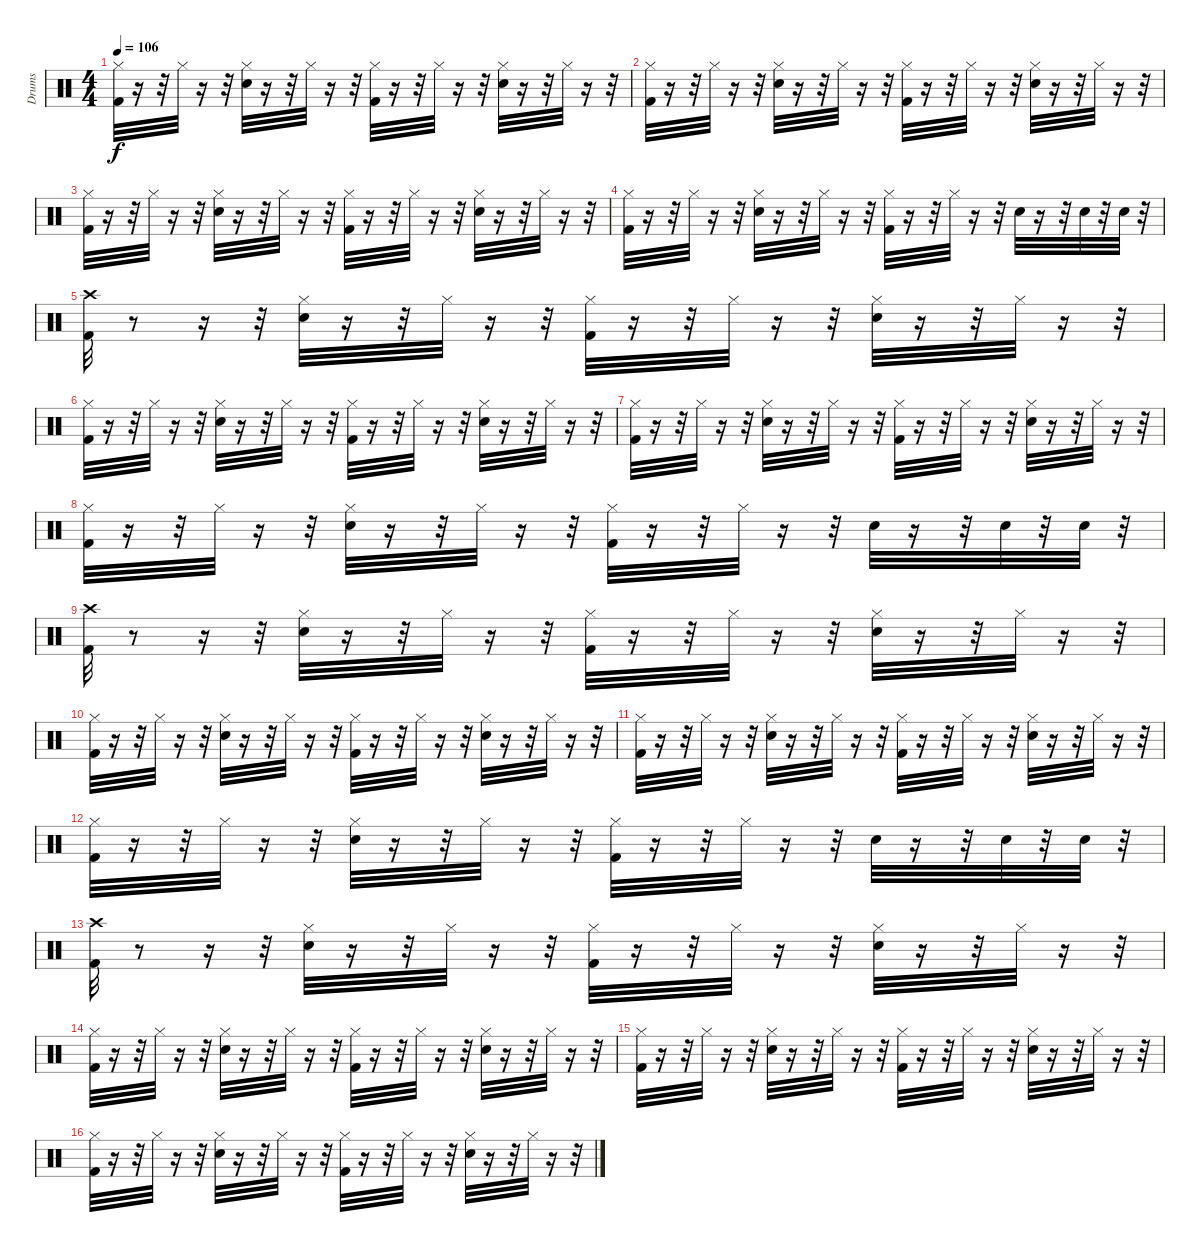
\track ("Drums" "Drums") {instrument percussion}
\staff {score}
\articulation defaults
\ts (4 4)
\tempo 106
\clef neutral
\ks c
("Hi-Hat (closed)" "Kick (hit) 2").32{dy f} r.16 r.32 "Hi-Hat (closed)".32 r.16 r.32 ("Hi-Hat (closed)" "Snare (hit) 2").32 r.16 r.32 "Hi-Hat (closed)".32 r.16 r.32 ("Hi-Hat (closed)" "Kick (hit) 2").32 r.16 r.32 "Hi-Hat (closed)".32 r.16 r.32 ("Hi-Hat (closed)" "Snare (hit) 2").32 r.16 r.32 "Hi-Hat (closed)".32 r.16 r.32 |
("Hi-Hat (closed)" "Kick (hit) 2").32 r.16 r.32 "Hi-Hat (closed)".32 r.16 r.32 ("Hi-Hat (closed)" "Snare (hit) 2").32 r.16 r.32 "Hi-Hat (closed)".32 r.16 r.32 ("Hi-Hat (closed)" "Kick (hit) 2").32 r.16 r.32 "Hi-Hat (closed)".32 r.16 r.32 ("Hi-Hat (closed)" "Snare (hit) 2").32 r.16 r.32 "Hi-Hat (closed)".32 r.16 r.32 |
("Hi-Hat (closed)" "Kick (hit) 2").32 r.16 r.32 "Hi-Hat (closed)".32 r.16 r.32 ("Hi-Hat (closed)" "Snare (hit) 2").32 r.16 r.32 "Hi-Hat (closed)".32 r.16 r.32 ("Hi-Hat (closed)" "Kick (hit) 2").32 r.16 r.32 "Hi-Hat (closed)".32 r.16 r.32 ("Hi-Hat (closed)" "Snare (hit) 2").32 r.16 r.32 "Hi-Hat (closed)".32 r.16 r.32 |
("Hi-Hat (closed)" "Kick (hit) 2").32 r.16 r.32 "Hi-Hat (closed)".32 r.16 r.32 ("Hi-Hat (closed)" "Snare (hit) 2").32 r.16 r.32 "Hi-Hat (closed)".32 r.16 r.32 ("Hi-Hat (closed)" "Kick (hit) 2").32 r.16 r.32 "Hi-Hat (closed)".32 r.16 r.32 "Snare (hit) 2".32 r.16 r.32 "Snare (hit) 2".32 r.32 "Snare (hit) 2".32 r.32 |
("Crash high (hit)" "Kick (hit) 2").32 r.8 r.16 r.32 ("Hi-Hat (closed)" "Snare (hit) 2").32 r.16 r.32 "Hi-Hat (closed)".32 r.16 r.32 ("Hi-Hat (closed)" "Kick (hit) 2").32 r.16 r.32 "Hi-Hat (closed)".32 r.16 r.32 ("Hi-Hat (closed)" "Snare (hit) 2").32 r.16 r.32 "Hi-Hat (closed)".32 r.16 r.32 |
("Hi-Hat (closed)" "Kick (hit) 2").32 r.16 r.32 "Hi-Hat (closed)".32 r.16 r.32 ("Hi-Hat (closed)" "Snare (hit) 2").32 r.16 r.32 "Hi-Hat (closed)".32 r.16 r.32 ("Hi-Hat (closed)" "Kick (hit) 2").32 r.16 r.32 "Hi-Hat (closed)".32 r.16 r.32 ("Hi-Hat (closed)" "Snare (hit) 2").32 r.16 r.32 "Hi-Hat (closed)".32 r.16 r.32 |
("Hi-Hat (closed)" "Kick (hit) 2").32 r.16 r.32 "Hi-Hat (closed)".32 r.16 r.32 ("Hi-Hat (closed)" "Snare (hit) 2").32 r.16 r.32 "Hi-Hat (closed)".32 r.16 r.32 ("Hi-Hat (closed)" "Kick (hit) 2").32 r.16 r.32 "Hi-Hat (closed)".32 r.16 r.32 ("Hi-Hat (closed)" "Snare (hit) 2").32 r.16 r.32 "Hi-Hat (closed)".32 r.16 r.32 |
("Hi-Hat (closed)" "Kick (hit) 2").32 r.16 r.32 "Hi-Hat (closed)".32 r.16 r.32 ("Hi-Hat (closed)" "Snare (hit) 2").32 r.16 r.32 "Hi-Hat (closed)".32 r.16 r.32 ("Hi-Hat (closed)" "Kick (hit) 2").32 r.16 r.32 "Hi-Hat (closed)".32 r.16 r.32 "Snare (hit) 2".32 r.16 r.32 "Snare (hit) 2".32 r.32 "Snare (hit) 2".32 r.32 |
("Crash high (hit)" "Kick (hit) 2").32 r.8 r.16 r.32 ("Hi-Hat (closed)" "Snare (hit) 2").32 r.16 r.32 "Hi-Hat (closed)".32 r.16 r.32 ("Hi-Hat (closed)" "Kick (hit) 2").32 r.16 r.32 "Hi-Hat (closed)".32 r.16 r.32 ("Hi-Hat (closed)" "Snare (hit) 2").32 r.16 r.32 "Hi-Hat (closed)".32 r.16 r.32 |
("Hi-Hat (closed)" "Kick (hit) 2").32 r.16 r.32 "Hi-Hat (closed)".32 r.16 r.32 ("Hi-Hat (closed)" "Snare (hit) 2").32 r.16 r.32 "Hi-Hat (closed)".32 r.16 r.32 ("Hi-Hat (closed)" "Kick (hit) 2").32 r.16 r.32 "Hi-Hat (closed)".32 r.16 r.32 ("Hi-Hat (closed)" "Snare (hit) 2").32 r.16 r.32 "Hi-Hat (closed)".32 r.16 r.32 |
("Hi-Hat (closed)" "Kick (hit) 2").32 r.16 r.32 "Hi-Hat (closed)".32 r.16 r.32 ("Hi-Hat (closed)" "Snare (hit) 2").32 r.16 r.32 "Hi-Hat (closed)".32 r.16 r.32 ("Hi-Hat (closed)" "Kick (hit) 2").32 r.16 r.32 "Hi-Hat (closed)".32 r.16 r.32 ("Hi-Hat (closed)" "Snare (hit) 2").32 r.16 r.32 "Hi-Hat (closed)".32 r.16 r.32 |
("Hi-Hat (closed)" "Kick (hit) 2").32 r.16 r.32 "Hi-Hat (closed)".32 r.16 r.32 ("Hi-Hat (closed)" "Snare (hit) 2").32 r.16 r.32 "Hi-Hat (closed)".32 r.16 r.32 ("Hi-Hat (closed)" "Kick (hit) 2").32 r.16 r.32 "Hi-Hat (closed)".32 r.16 r.32 "Snare (hit) 2".32 r.16 r.32 "Snare (hit) 2".32 r.32 "Snare (hit) 2".32 r.32 |
("Crash high (hit)" "Kick (hit) 2").32 r.8 r.16 r.32 ("Hi-Hat (closed)" "Snare (hit) 2").32 r.16 r.32 "Hi-Hat (closed)".32 r.16 r.32 ("Hi-Hat (closed)" "Kick (hit) 2").32 r.16 r.32 "Hi-Hat (closed)".32 r.16 r.32 ("Hi-Hat (closed)" "Snare (hit) 2").32 r.16 r.32 "Hi-Hat (closed)".32 r.16 r.32 |
("Hi-Hat (closed)" "Kick (hit) 2").32 r.16 r.32 "Hi-Hat (closed)".32 r.16 r.32 ("Hi-Hat (closed)" "Snare (hit) 2").32 r.16 r.32 "Hi-Hat (closed)".32 r.16 r.32 ("Hi-Hat (closed)" "Kick (hit) 2").32 r.16 r.32 "Hi-Hat (closed)".32 r.16 r.32 ("Hi-Hat (closed)" "Snare (hit) 2").32 r.16 r.32 "Hi-Hat (closed)".32 r.16 r.32 |
("Hi-Hat (closed)" "Kick (hit) 2").32 r.16 r.32 "Hi-Hat (closed)".32 r.16 r.32 ("Hi-Hat (closed)" "Snare (hit) 2").32 r.16 r.32 "Hi-Hat (closed)".32 r.16 r.32 ("Hi-Hat (closed)" "Kick (hit) 2").32 r.16 r.32 "Hi-Hat (closed)".32 r.16 r.32 ("Hi-Hat (closed)" "Snare (hit) 2").32 r.16 r.32 "Hi-Hat (closed)".32 r.16 r.32 |
("Hi-Hat (closed)" "Kick (hit) 2").32 r.16 r.32 "Hi-Hat (closed)".32 r.16 r.32 ("Hi-Hat (closed)" "Snare (hit) 2").32 r.16 r.32 "Hi-Hat (closed)".32 r.16 r.32 ("Hi-Hat (closed)" "Kick (hit) 2").32 r.16 r.32 "Hi-Hat (closed)".32 r.16 r.32 ("Hi-Hat (closed)" "Snare (hit) 2").32 r.16 r.32 "Hi-Hat (closed)".32 r.16 r.32
